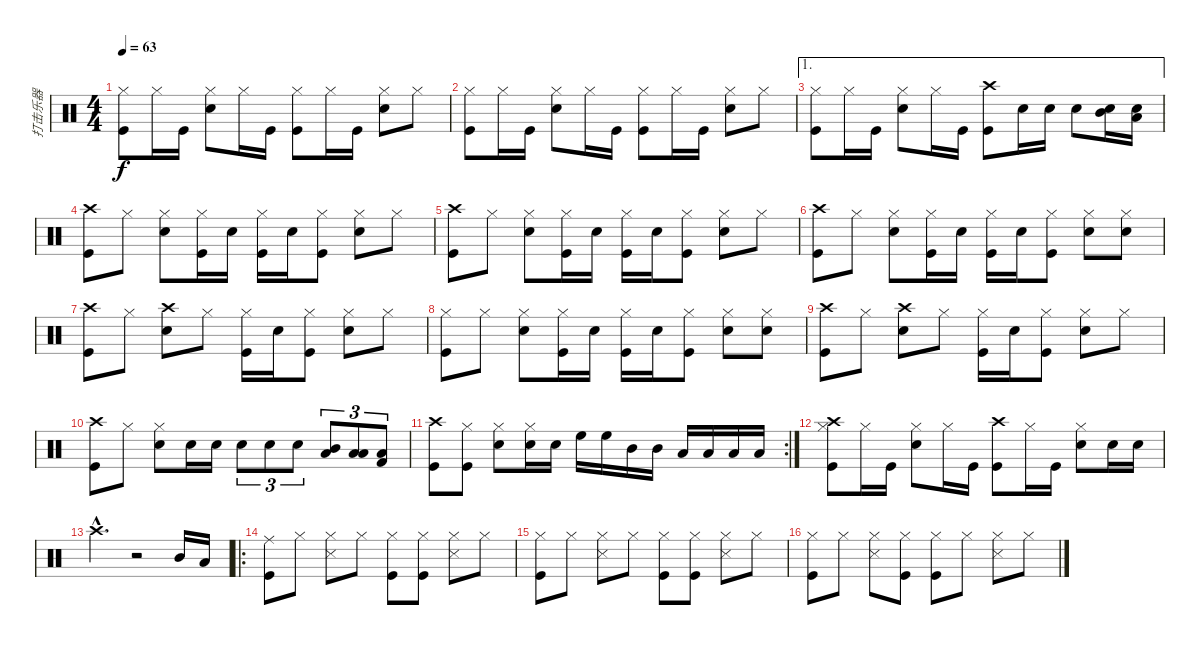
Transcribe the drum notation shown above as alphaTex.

\track ("打击乐器" "打击乐器") {instrument percussion}
\staff {score}
\articulation defaults
\ts (4 4)
\tempo 63
\clef neutral
\ks aminor
("Hi-Hat (closed)" "Kick (hit)").8{dy f} "Hi-Hat (closed)".16 "Kick (hit)".16 ("Hi-Hat (closed)" "Electric Snare (hit)").8 "Hi-Hat (closed)".16 "Kick (hit)".16 ("Hi-Hat (closed)" "Kick (hit)").8 "Hi-Hat (closed)".16 "Kick (hit)".16 ("Hi-Hat (closed)" "Electric Snare (hit)").8 "Hi-Hat (closed)".8 |
("Hi-Hat (closed)" "Kick (hit)").8 "Hi-Hat (closed)".16 "Kick (hit)".16 ("Hi-Hat (closed)" "Electric Snare (hit)").8 "Hi-Hat (closed)".16 "Kick (hit)".16 ("Hi-Hat (closed)" "Kick (hit)").8 "Hi-Hat (closed)".16 "Kick (hit)".16 ("Hi-Hat (closed)" "Electric Snare (hit)").8 "Hi-Hat (closed)".8 |
\ae 1
("Hi-Hat (closed)" "Kick (hit)").8 "Hi-Hat (closed)".16 "Kick (hit)".16 ("Hi-Hat (closed)" "Electric Snare (hit)").8 "Hi-Hat (closed)".16 "Kick (hit)".16 ("Crash high (hit)" "Kick (hit)").8 "Electric Snare (hit)".16 "Electric Snare (hit)".16 "Electric Snare (hit)".8 ("Mid Tom (hit)" "Electric Snare (hit)").16 ("Low Tom (hit)" "Electric Snare (hit)").16 |
("Crash high (hit)" "Kick (hit)").8 "Hi-Hat (closed)".8 ("Hi-Hat (closed)" "Electric Snare (hit)").8 ("Hi-Hat (closed)" "Kick (hit)").16 "Electric Snare (hit)".16 ("Hi-Hat (closed)" "Kick (hit)").16 "Electric Snare (hit)".16 ("Hi-Hat (closed)" "Kick (hit)").8 ("Hi-Hat (closed)" "Electric Snare (hit)").8 "Hi-Hat (closed)".8 |
("Crash high (hit)" "Kick (hit)").8 "Hi-Hat (closed)".8 ("Hi-Hat (closed)" "Electric Snare (hit)").8 ("Hi-Hat (closed)" "Kick (hit)").16 "Electric Snare (hit)".16 ("Hi-Hat (closed)" "Kick (hit)").16 "Electric Snare (hit)".16 ("Hi-Hat (closed)" "Kick (hit)").8 ("Hi-Hat (closed)" "Electric Snare (hit)").8 "Hi-Hat (closed)".8 |
("Crash high (hit)" "Kick (hit)").8 "Hi-Hat (closed)".8 ("Hi-Hat (closed)" "Electric Snare (hit)").8 ("Hi-Hat (closed)" "Kick (hit)").16 "Electric Snare (hit)".16 ("Hi-Hat (closed)" "Kick (hit)").16 "Electric Snare (hit)".16 ("Hi-Hat (closed)" "Kick (hit)").8 ("Hi-Hat (closed)" "Electric Snare (hit)").8 ("Hi-Hat (closed)" "Electric Snare (hit)").8 |
("Crash high (hit)" "Kick (hit)").8 "Hi-Hat (closed)".8 ("Crash high (hit)" "Electric Snare (hit)").8 "Hi-Hat (closed)".8 ("Hi-Hat (closed)" "Kick (hit)").16 "Electric Snare (hit)".16 ("Hi-Hat (closed)" "Kick (hit)").8 ("Hi-Hat (closed)" "Electric Snare (hit)").8 "Hi-Hat (closed)".8 |
("Hi-Hat (closed)" "Kick (hit)").8 "Hi-Hat (closed)".8 ("Hi-Hat (closed)" "Electric Snare (hit)").8 ("Hi-Hat (closed)" "Kick (hit)").16 "Electric Snare (hit)".16 ("Hi-Hat (closed)" "Kick (hit)").16 "Electric Snare (hit)".16 ("Hi-Hat (closed)" "Kick (hit)").8 ("Hi-Hat (closed)" "Electric Snare (hit)").8 ("Hi-Hat (closed)" "Electric Snare (hit)").8 |
("Crash high (hit)" "Kick (hit)").8 "Hi-Hat (closed)".8 ("Crash high (hit)" "Electric Snare (hit)").8 "Hi-Hat (closed)".8 ("Hi-Hat (closed)" "Kick (hit)").16 "Electric Snare (hit)".16 ("Hi-Hat (closed)" "Kick (hit)").8 ("Hi-Hat (closed)" "Electric Snare (hit)").8 "Hi-Hat (closed)".8 |
("Crash high (hit)" "Kick (hit)").8 "Hi-Hat (closed)".8 ("Hi-Hat (closed)" "Electric Snare (hit)").8 "Electric Snare (hit)".16 "Electric Snare (hit)".16 "Electric Snare (hit)".8{tu (3 2)} "Electric Snare (hit)".8{tu (3 2)} "Electric Snare (hit)".8{tu (3 2)} ("Mid Tom (hit)" "Low Tom (hit)").8{tu (3 2)} ("Low Tom (hit)" "Low Floor Tom (hit)").8{tu (3 2)} ("Low Floor Tom (hit)" "Kick (hit) 2").8{tu (3 2)} |
\rc 2
("Crash high (hit)" "Kick (hit)").8 ("Hi-Hat (closed)" "Kick (hit)").8 ("Hi-Hat (closed)" "Electric Snare (hit)").8 ("Hi-Hat (closed)" "Electric Snare (hit)").16 "Electric Snare (hit)".16 "High Floor Tom (hit)".16 "High Floor Tom (hit)".16 "Mid Tom (hit)".16 "Mid Tom (hit)".16 "Low Tom (hit)".16 "Low Tom (hit)".16 "Low Floor Tom (hit)".16 "Low Floor Tom (hit)".16 |
("Hi-Hat (closed)" "Crash high (hit)" "Kick (hit)").8 "Hi-Hat (closed)".16 "Kick (hit)".16 ("Hi-Hat (closed)" "Electric Snare (hit)").8 "Hi-Hat (closed)".16 "Kick (hit)".16 ("Crash high (hit)" "Kick (hit)").8 "Hi-Hat (closed)".16 "Kick (hit)".16 ("Hi-Hat (closed)" "Electric Snare (hit)").8 "Electric Snare (hit)".16 "Electric Snare (hit)".16 |
"Crash high (hit)"{tr (49 64) hac}.4{d} r.2 "Mid Tom (hit)".16 "Low Tom (hit)".16 |
\ro
("Ride (middle)" "Kick (hit)").8 "Hi-Hat (closed)".8 ("Hi-Hat (closed)" "Snare (side stick) 3").8 "Hi-Hat (closed)".8 ("Hi-Hat (closed)" "Kick (hit)").8 ("Hi-Hat (closed)" "Kick (hit)").8 ("Hi-Hat (closed)" "Snare (side stick) 3").8 "Hi-Hat (closed)".8 |
("Hi-Hat (closed)" "Kick (hit)").8 "Hi-Hat (closed)".8 ("Hi-Hat (closed)" "Snare (side stick) 3").8 "Hi-Hat (closed)".8 ("Hi-Hat (closed)" "Kick (hit)").8 ("Hi-Hat (closed)" "Kick (hit)").8 ("Hi-Hat (closed)" "Snare (side stick) 3").8 "Hi-Hat (closed)".8 |
("Hi-Hat (closed)" "Kick (hit)").8 "Hi-Hat (closed)".8 ("Hi-Hat (closed)" "Snare (side stick) 3").8 ("Hi-Hat (closed)" "Kick (hit)").8 ("Hi-Hat (closed)" "Kick (hit)").8 "Hi-Hat (closed)".8 ("Hi-Hat (closed)" "Snare (side stick) 3").8 "Hi-Hat (closed)".8
